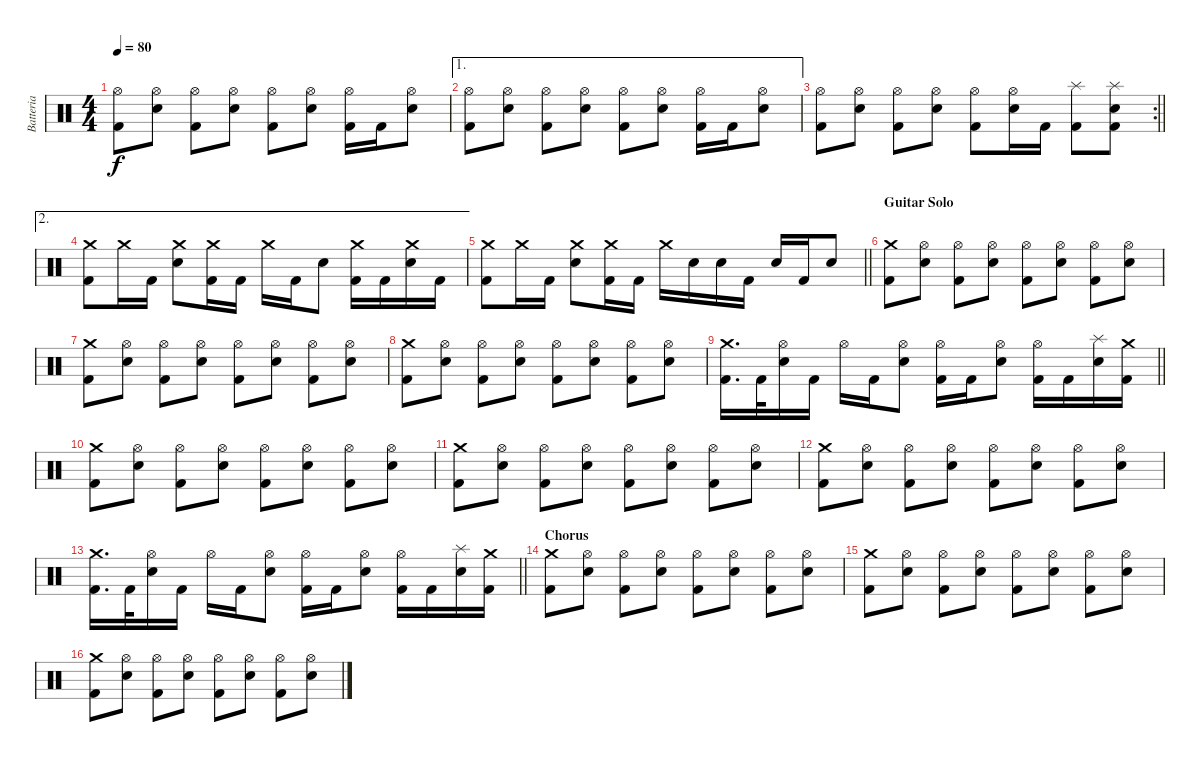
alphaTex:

\track ("Batteria" "Batteria") {instrument percussion}
\staff {score}
\articulation defaults
\ts (4 4)
\tempo 80
\clef neutral
\ks c
("Hi-Hat (open)" "Kick (hit) 2").8{dy f} ("Hi-Hat (open)" "Electric Snare (hit)").8 ("Hi-Hat (open)" "Kick (hit) 2").8 ("Hi-Hat (open)" "Electric Snare (hit)").8 ("Hi-Hat (open)" "Kick (hit) 2").8 ("Hi-Hat (open)" "Electric Snare (hit)").8 ("Hi-Hat (open)" "Kick (hit) 2").16 "Kick (hit) 2".16 ("Hi-Hat (open)" "Electric Snare (hit)").8 |
\ae 1
("Hi-Hat (open)" "Kick (hit) 2").8 ("Hi-Hat (open)" "Electric Snare (hit)").8 ("Hi-Hat (open)" "Kick (hit) 2").8 ("Hi-Hat (open)" "Electric Snare (hit)").8 ("Hi-Hat (open)" "Kick (hit) 2").8 ("Hi-Hat (open)" "Electric Snare (hit)").8 ("Hi-Hat (open)" "Kick (hit) 2").16 "Kick (hit) 2".16 ("Hi-Hat (open)" "Electric Snare (hit)").8 |
\rc 2
\barLineRight lightlight
("Hi-Hat (open)" "Kick (hit) 2").8 ("Hi-Hat (open)" "Electric Snare (hit)").8 ("Hi-Hat (open)" "Kick (hit) 2").8 ("Hi-Hat (open)" "Electric Snare (hit)").8 ("Hi-Hat (open)" "Kick (hit) 2").8 ("Hi-Hat (open)" "Electric Snare (hit)").16 "Kick (hit) 2".16 ("Splash (hit)" "Kick (hit) 2").8 ("Splash (hit)" "Electric Snare (hit)" "Kick (hit) 2").8 |
\ae 2
("Crash medium (hit)" "Kick (hit) 2").8 "Crash medium (hit)".16 "Kick (hit) 2".16 ("Crash medium (hit)" "Electric Snare (hit)").8 ("Crash medium (hit)" "Kick (hit) 2").16 "Kick (hit) 2".16 "Crash medium (hit)".16 "Kick (hit) 2".16 "Electric Snare (hit)".8 ("Crash medium (hit)" "Kick (hit) 2").16 "Kick (hit) 2".16 ("Crash medium (hit)" "Electric Snare (hit)").16 "Kick (hit) 2".16 |
\barLineRight lightlight
("Crash medium (hit)" "Kick (hit) 2").8 "Crash medium (hit)".16 "Kick (hit) 2".16 ("Crash medium (hit)" "Electric Snare (hit)").8 ("Crash medium (hit)" "Kick (hit) 2").16 "Kick (hit) 2".16 "Crash medium (hit)".16 "Electric Snare (hit)".16 "Electric Snare (hit)".16 "Kick (hit) 2".16 "Electric Snare (hit)".16 "Kick (hit) 2".16 "Electric Snare (hit)".8 |
\section ("" "Guitar Solo")
("Crash medium (hit)" "Kick (hit) 2").8 ("Hi-Hat (open)" "Electric Snare (hit)").8 ("Hi-Hat (open)" "Kick (hit) 2").8 ("Hi-Hat (open)" "Electric Snare (hit)").8 ("Hi-Hat (open)" "Kick (hit) 2").8 ("Hi-Hat (open)" "Electric Snare (hit)").8 ("Hi-Hat (open)" "Kick (hit) 2").8 ("Hi-Hat (open)" "Electric Snare (hit)").8 |
("Crash medium (hit)" "Kick (hit) 2").8 ("Hi-Hat (open)" "Electric Snare (hit)").8 ("Hi-Hat (open)" "Kick (hit) 2").8 ("Hi-Hat (open)" "Electric Snare (hit)").8 ("Hi-Hat (open)" "Kick (hit) 2").8 ("Hi-Hat (open)" "Electric Snare (hit)").8 ("Hi-Hat (open)" "Kick (hit) 2").8 ("Hi-Hat (open)" "Electric Snare (hit)").8 |
("Crash medium (hit)" "Kick (hit) 2").8 ("Hi-Hat (open)" "Electric Snare (hit)").8 ("Hi-Hat (open)" "Kick (hit) 2").8 ("Hi-Hat (open)" "Electric Snare (hit)").8 ("Hi-Hat (open)" "Kick (hit) 2").8 ("Hi-Hat (open)" "Electric Snare (hit)").8 ("Hi-Hat (open)" "Kick (hit) 2").8 ("Hi-Hat (open)" "Electric Snare (hit)").8 |
\barLineRight lightlight
("Crash medium (hit)" "Kick (hit) 2").16{d} "Kick (hit) 2".32 ("Hi-Hat (open)" "Electric Snare (hit)").16 "Kick (hit) 2".16 "Hi-Hat (open)".16 "Kick (hit) 2".16 ("Hi-Hat (open)" "Electric Snare (hit)").8 ("Hi-Hat (open)" "Kick (hit) 2").16 "Kick (hit) 2".16 ("Hi-Hat (open)" "Electric Snare (hit)").8 ("Hi-Hat (open)" "Kick (hit) 2").16 "Kick (hit) 2".16 ("Splash (hit)" "Electric Snare (hit)").16 ("Crash medium (hit)" "Kick (hit) 2").16 |
("Crash medium (hit)" "Kick (hit) 2").8 ("Hi-Hat (open)" "Electric Snare (hit)").8 ("Hi-Hat (open)" "Kick (hit) 2").8 ("Hi-Hat (open)" "Electric Snare (hit)").8 ("Hi-Hat (open)" "Kick (hit) 2").8 ("Hi-Hat (open)" "Electric Snare (hit)").8 ("Hi-Hat (open)" "Kick (hit) 2").8 ("Hi-Hat (open)" "Electric Snare (hit)").8 |
("Crash medium (hit)" "Kick (hit) 2").8 ("Hi-Hat (open)" "Electric Snare (hit)").8 ("Hi-Hat (open)" "Kick (hit) 2").8 ("Hi-Hat (open)" "Electric Snare (hit)").8 ("Hi-Hat (open)" "Kick (hit) 2").8 ("Hi-Hat (open)" "Electric Snare (hit)").8 ("Hi-Hat (open)" "Kick (hit) 2").8 ("Hi-Hat (open)" "Electric Snare (hit)").8 |
("Crash medium (hit)" "Kick (hit) 2").8 ("Hi-Hat (open)" "Electric Snare (hit)").8 ("Hi-Hat (open)" "Kick (hit) 2").8 ("Hi-Hat (open)" "Electric Snare (hit)").8 ("Hi-Hat (open)" "Kick (hit) 2").8 ("Hi-Hat (open)" "Electric Snare (hit)").8 ("Hi-Hat (open)" "Kick (hit) 2").8 ("Hi-Hat (open)" "Electric Snare (hit)").8 |
\barLineRight lightlight
("Crash medium (hit)" "Kick (hit) 2").16{d} "Kick (hit) 2".32 ("Hi-Hat (open)" "Electric Snare (hit)").16 "Kick (hit) 2".16 "Hi-Hat (open)".16 "Kick (hit) 2".16 ("Hi-Hat (open)" "Electric Snare (hit)").8 ("Hi-Hat (open)" "Kick (hit) 2").16 "Kick (hit) 2".16 ("Hi-Hat (open)" "Electric Snare (hit)").8 ("Hi-Hat (open)" "Kick (hit) 2").16 "Kick (hit) 2".16 ("Splash (hit)" "Electric Snare (hit)").16 ("Crash medium (hit)" "Kick (hit) 2").16 |
\section ("" "Chorus")
("Crash medium (hit)" "Kick (hit) 2").8 ("Hi-Hat (open)" "Electric Snare (hit)").8 ("Hi-Hat (open)" "Kick (hit) 2").8 ("Hi-Hat (open)" "Electric Snare (hit)").8 ("Hi-Hat (open)" "Kick (hit) 2").8 ("Hi-Hat (open)" "Electric Snare (hit)").8 ("Hi-Hat (open)" "Kick (hit) 2").8 ("Hi-Hat (open)" "Electric Snare (hit)").8 |
("Crash medium (hit)" "Kick (hit) 2").8 ("Hi-Hat (open)" "Electric Snare (hit)").8 ("Hi-Hat (open)" "Kick (hit) 2").8 ("Hi-Hat (open)" "Electric Snare (hit)").8 ("Hi-Hat (open)" "Kick (hit) 2").8 ("Hi-Hat (open)" "Electric Snare (hit)").8 ("Hi-Hat (open)" "Kick (hit) 2").8 ("Hi-Hat (open)" "Electric Snare (hit)").8 |
("Crash medium (hit)" "Kick (hit) 2").8 ("Hi-Hat (open)" "Electric Snare (hit)").8 ("Hi-Hat (open)" "Kick (hit) 2").8 ("Hi-Hat (open)" "Electric Snare (hit)").8 ("Hi-Hat (open)" "Kick (hit) 2").8 ("Hi-Hat (open)" "Electric Snare (hit)").8 ("Hi-Hat (open)" "Kick (hit) 2").8 ("Hi-Hat (open)" "Electric Snare (hit)").8
